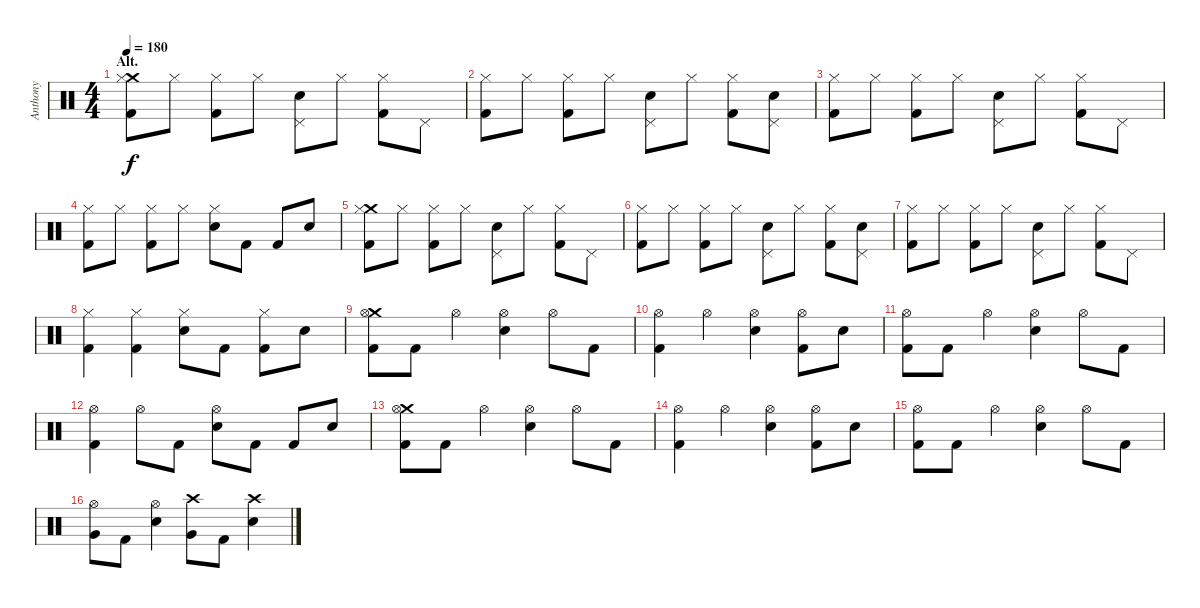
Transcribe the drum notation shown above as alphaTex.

\track ("Anthony" "Anthony") {instrument percussion}
\staff {score}
\articulation defaults
\ts (4 4)
\section ("" "Alt.")
\tempo 180
\clef neutral
\ks c
("Crash medium (hit)" "Hi-Hat (closed)" "Kick (hit) 2").8{dy f} "Hi-Hat (closed)".8 ("Hi-Hat (closed)" "Kick (hit) 2").8 "Hi-Hat (closed)".8 ("Pedal Hi-Hat (hit)" "Electric Snare (hit)").8 "Hi-Hat (closed)".8 ("Hi-Hat (closed)" "Kick (hit) 2").8 "Pedal Hi-Hat (hit)".8 |
("Hi-Hat (closed)" "Kick (hit) 2").8 "Hi-Hat (closed)".8 ("Hi-Hat (closed)" "Kick (hit) 2").8 "Hi-Hat (closed)".8 ("Pedal Hi-Hat (hit)" "Electric Snare (hit)").8 "Hi-Hat (closed)".8 ("Hi-Hat (closed)" "Kick (hit) 2").8 ("Pedal Hi-Hat (hit)" "Electric Snare (hit)").8 |
("Hi-Hat (closed)" "Kick (hit) 2").8 "Hi-Hat (closed)".8 ("Hi-Hat (closed)" "Kick (hit) 2").8 "Hi-Hat (closed)".8 ("Pedal Hi-Hat (hit)" "Electric Snare (hit)").8 "Hi-Hat (closed)".8 ("Hi-Hat (closed)" "Kick (hit) 2").8 "Pedal Hi-Hat (hit)".8 |
("Hi-Hat (closed)" "Kick (hit) 2").8 "Hi-Hat (closed)".8 ("Hi-Hat (closed)" "Kick (hit) 2").8 "Hi-Hat (closed)".8 ("Hi-Hat (closed)" "Electric Snare (hit)").8 "Kick (hit) 2".8 "Kick (hit) 2".8 "Electric Snare (hit)".8 |
("Crash medium (hit)" "Hi-Hat (closed)" "Kick (hit) 2").8 "Hi-Hat (closed)".8 ("Hi-Hat (closed)" "Kick (hit) 2").8 "Hi-Hat (closed)".8 ("Pedal Hi-Hat (hit)" "Electric Snare (hit)").8 "Hi-Hat (closed)".8 ("Hi-Hat (closed)" "Kick (hit) 2").8 "Pedal Hi-Hat (hit)".8 |
("Hi-Hat (closed)" "Kick (hit) 2").8 "Hi-Hat (closed)".8 ("Hi-Hat (closed)" "Kick (hit) 2").8 "Hi-Hat (closed)".8 ("Pedal Hi-Hat (hit)" "Electric Snare (hit)").8 "Hi-Hat (closed)".8 ("Hi-Hat (closed)" "Kick (hit) 2").8 ("Pedal Hi-Hat (hit)" "Electric Snare (hit)").8 |
("Hi-Hat (closed)" "Kick (hit) 2").8 "Hi-Hat (closed)".8 ("Hi-Hat (closed)" "Kick (hit) 2").8 "Hi-Hat (closed)".8 ("Pedal Hi-Hat (hit)" "Electric Snare (hit)").8 "Hi-Hat (closed)".8 ("Hi-Hat (closed)" "Kick (hit) 2").8 "Pedal Hi-Hat (hit)".8 |
("Hi-Hat (closed)" "Kick (hit) 2").4 ("Hi-Hat (closed)" "Kick (hit) 2").4 ("Hi-Hat (closed)" "Electric Snare (hit)").8 "Kick (hit) 2".8 ("Hi-Hat (closed)" "Kick (hit) 2").8 "Electric Snare (hit)".8 |
("Crash medium (hit)" "Hi-Hat (open)" "Kick (hit) 2").8 "Kick (hit) 2".8 "Hi-Hat (open)".4 ("Hi-Hat (open)" "Electric Snare (hit)").4 "Hi-Hat (open)".8 "Kick (hit) 2".8 |
("Hi-Hat (open)" "Kick (hit) 2").4 "Hi-Hat (open)".4 ("Hi-Hat (open)" "Electric Snare (hit)").4 ("Hi-Hat (open)" "Kick (hit) 2").8 "Electric Snare (hit)".8 |
("Hi-Hat (open)" "Kick (hit) 2").8 "Kick (hit) 2".8 "Hi-Hat (open)".4 ("Hi-Hat (open)" "Electric Snare (hit)").4 "Hi-Hat (open)".8 "Kick (hit) 2".8 |
("Hi-Hat (open)" "Kick (hit) 2").4 "Hi-Hat (open)".8 "Kick (hit) 2".8 ("Hi-Hat (open)" "Electric Snare (hit)").8 "Kick (hit) 2".8 "Kick (hit) 2".8 "Electric Snare (hit)".8 |
("Crash medium (hit)" "Hi-Hat (open)" "Kick (hit) 2").8 "Kick (hit) 2".8 "Hi-Hat (open)".4 ("Hi-Hat (open)" "Electric Snare (hit)").4 "Hi-Hat (open)".8 "Kick (hit) 2".8 |
("Hi-Hat (open)" "Kick (hit) 2").4 "Hi-Hat (open)".4 ("Hi-Hat (open)" "Electric Snare (hit)").4 ("Hi-Hat (open)" "Kick (hit) 2").8 "Electric Snare (hit)".8 |
("Hi-Hat (open)" "Kick (hit) 2").8 "Kick (hit) 2".8 "Hi-Hat (open)".4 ("Hi-Hat (open)" "Electric Snare (hit)").4 "Hi-Hat (open)".8 "Kick (hit) 2".8 |
("Hi-Hat (open)" "Very Low Tom (hit)").8 "Kick (hit) 2".8 ("Hi-Hat (open)" "Electric Snare (hit)").4 ("Crash high (hit)" "Very Low Tom (hit)").8 "Kick (hit) 2".8 ("Crash high (hit)" "Electric Snare (hit)").4
